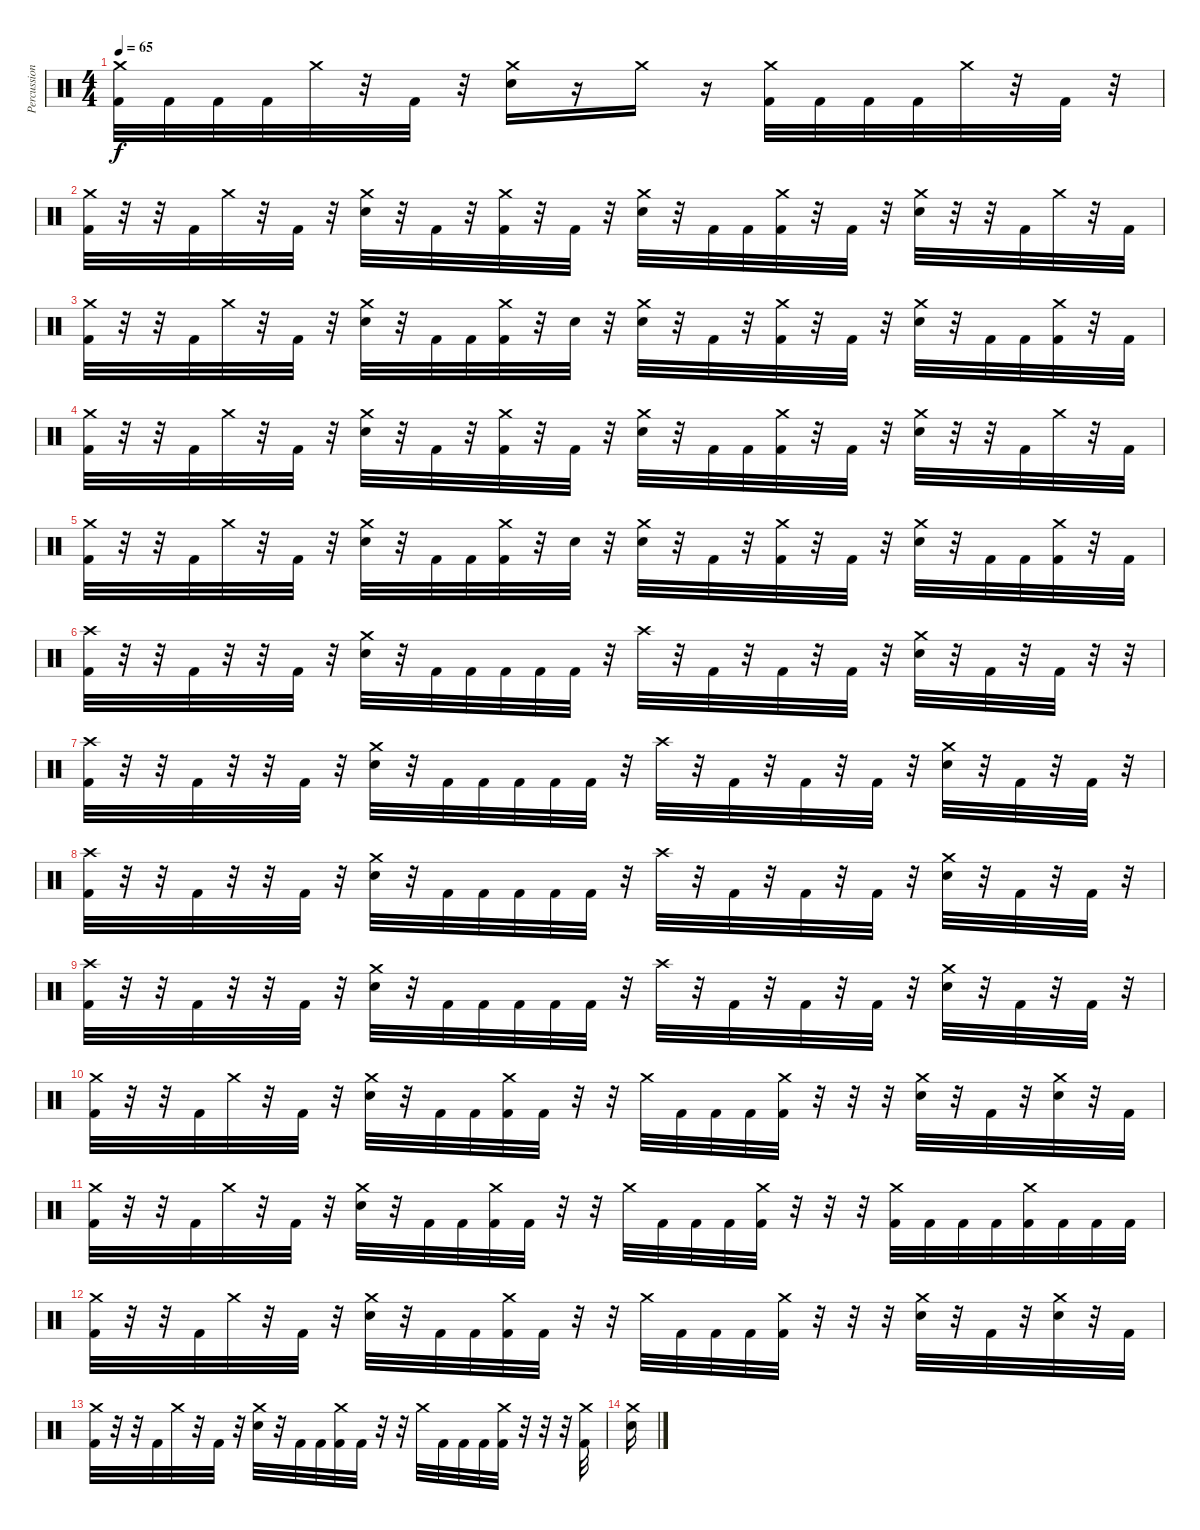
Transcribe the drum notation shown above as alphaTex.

\track ("Percussion" "Percussion") {instrument percussion}
\staff {score}
\articulation defaults
\ts (4 4)
\tempo 65
\clef neutral
\ks c
("Kick (hit) 2" "Crash medium (hit)").32{dy f} "Kick (hit) 2".32 "Kick (hit) 2".32 "Kick (hit) 2".32 "Crash medium (hit)".32 r.32 "Kick (hit) 2".32 r.32 ("Snare (hit) 2" "Crash medium (hit)").16 r.16 "Crash medium (hit)".16 r.16 ("Kick (hit) 2" "Crash medium (hit)").32 "Kick (hit) 2".32 "Kick (hit) 2".32 "Kick (hit) 2".32 "Crash medium (hit)".32 r.32 "Kick (hit) 2".32 r.32 |
("Crash medium (hit)" "Kick (hit) 2").32 r.32 r.32 "Kick (hit) 2".32 "Crash medium (hit)".32 r.32 "Kick (hit) 2".32 r.32 ("Crash medium (hit)" "Snare (hit) 2").32 r.32 "Kick (hit) 2".32 r.32 ("Crash medium (hit)" "Kick (hit) 2").32 r.32 "Kick (hit) 2".32 r.32 ("Crash medium (hit)" "Snare (hit) 2").32 r.32 "Kick (hit) 2".32 "Kick (hit) 2".32 ("Crash medium (hit)" "Kick (hit) 2").32 r.32 "Kick (hit) 2".32 r.32 ("Crash medium (hit)" "Snare (hit) 2").32 r.32 r.32 "Kick (hit) 2".32 "Crash medium (hit)".32 r.32 "Kick (hit) 2".32 |
("Crash medium (hit)" "Kick (hit) 2").32 r.32 r.32 "Kick (hit) 2".32 "Crash medium (hit)".32 r.32 "Kick (hit) 2".32 r.32 ("Crash medium (hit)" "Snare (hit) 2").32 r.32 "Kick (hit) 2".32 "Kick (hit) 2".32 ("Crash medium (hit)" "Kick (hit) 2").32 r.32 "Snare (hit) 2".32 r.32 ("Crash medium (hit)" "Snare (hit) 2").32 r.32 "Kick (hit) 2".32 r.32 ("Crash medium (hit)" "Kick (hit) 2").32 r.32 "Kick (hit) 2".32 r.32 ("Crash medium (hit)" "Snare (hit) 2").32 r.32 "Kick (hit) 2".32 "Kick (hit) 2".32 ("Crash medium (hit)" "Kick (hit) 2").32 r.32 "Kick (hit) 2".32 |
("Crash medium (hit)" "Kick (hit) 2").32 r.32 r.32 "Kick (hit) 2".32 "Crash medium (hit)".32 r.32 "Kick (hit) 2".32 r.32 ("Crash medium (hit)" "Snare (hit) 2").32 r.32 "Kick (hit) 2".32 r.32 ("Crash medium (hit)" "Kick (hit) 2").32 r.32 "Kick (hit) 2".32 r.32 ("Crash medium (hit)" "Snare (hit) 2").32 r.32 "Kick (hit) 2".32 "Kick (hit) 2".32 ("Crash medium (hit)" "Kick (hit) 2").32 r.32 "Kick (hit) 2".32 r.32 ("Crash medium (hit)" "Snare (hit) 2").32 r.32 r.32 "Kick (hit) 2".32 "Crash medium (hit)".32 r.32 "Kick (hit) 2".32 |
("Crash medium (hit)" "Kick (hit) 2").32 r.32 r.32 "Kick (hit) 2".32 "Crash medium (hit)".32 r.32 "Kick (hit) 2".32 r.32 ("Crash medium (hit)" "Snare (hit) 2").32 r.32 "Kick (hit) 2".32 "Kick (hit) 2".32 ("Crash medium (hit)" "Kick (hit) 2").32 r.32 "Snare (hit) 2".32 r.32 ("Crash medium (hit)" "Snare (hit) 2").32 r.32 "Kick (hit) 2".32 r.32 ("Crash medium (hit)" "Kick (hit) 2").32 r.32 "Kick (hit) 2".32 r.32 ("Crash medium (hit)" "Snare (hit) 2").32 r.32 "Kick (hit) 2".32 "Kick (hit) 2".32 ("Crash medium (hit)" "Kick (hit) 2").32 r.32 "Kick (hit) 2".32 |
("Crash high (hit)" "Kick (hit) 2").32 r.32 r.32 "Kick (hit) 2".32 r.32 r.32 "Kick (hit) 2".32 r.32 ("Crash medium (hit)" "Snare (hit) 2").32 r.32 "Kick (hit) 2".32 "Kick (hit) 2".32 "Kick (hit) 2".32 "Kick (hit) 2".32 "Kick (hit) 2".32 r.32 "Crash high (hit)".32 r.32 "Kick (hit) 2".32 r.32 "Kick (hit) 2".32 r.32 "Kick (hit) 2".32 r.32 ("Crash medium (hit)" "Snare (hit) 2").32 r.32 "Kick (hit) 2".32 r.32 "Kick (hit) 2".32 r.32 r.32 |
("Crash high (hit)" "Kick (hit) 2").32 r.32 r.32 "Kick (hit) 2".32 r.32 r.32 "Kick (hit) 2".32 r.32 ("Crash medium (hit)" "Snare (hit) 2").32 r.32 "Kick (hit) 2".32 "Kick (hit) 2".32 "Kick (hit) 2".32 "Kick (hit) 2".32 "Kick (hit) 2".32 r.32 "Crash high (hit)".32 r.32 "Kick (hit) 2".32 r.32 "Kick (hit) 2".32 r.32 "Kick (hit) 2".32 r.32 ("Crash medium (hit)" "Snare (hit) 2").32 r.32 "Kick (hit) 2".32 r.32 "Kick (hit) 2".32 r.32 |
("Crash high (hit)" "Kick (hit) 2").32 r.32 r.32 "Kick (hit) 2".32 r.32 r.32 "Kick (hit) 2".32 r.32 ("Crash medium (hit)" "Snare (hit) 2").32 r.32 "Kick (hit) 2".32 "Kick (hit) 2".32 "Kick (hit) 2".32 "Kick (hit) 2".32 "Kick (hit) 2".32 r.32 "Crash high (hit)".32 r.32 "Kick (hit) 2".32 r.32 "Kick (hit) 2".32 r.32 "Kick (hit) 2".32 r.32 ("Crash medium (hit)" "Snare (hit) 2").32 r.32 "Kick (hit) 2".32 r.32 "Kick (hit) 2".32 r.32 |
("Crash high (hit)" "Kick (hit) 2").32 r.32 r.32 "Kick (hit) 2".32 r.32 r.32 "Kick (hit) 2".32 r.32 ("Crash medium (hit)" "Snare (hit) 2").32 r.32 "Kick (hit) 2".32 "Kick (hit) 2".32 "Kick (hit) 2".32 "Kick (hit) 2".32 "Kick (hit) 2".32 r.32 "Crash high (hit)".32 r.32 "Kick (hit) 2".32 r.32 "Kick (hit) 2".32 r.32 "Kick (hit) 2".32 r.32 ("Crash medium (hit)" "Snare (hit) 2").32 r.32 "Kick (hit) 2".32 r.32 "Kick (hit) 2".32 r.32 |
("Crash medium (hit)" "Kick (hit) 2").32 r.32 r.32 "Kick (hit) 2".32 "Crash medium (hit)".32 r.32 "Kick (hit) 2".32 r.32 ("Crash medium (hit)" "Snare (hit) 2").32 r.32 "Kick (hit) 2".32 "Kick (hit) 2".32 ("Crash medium (hit)" "Kick (hit) 2").32 "Kick (hit) 2".32 r.32 r.32 "Crash medium (hit)".32 "Kick (hit) 2".32 "Kick (hit) 2".32 "Kick (hit) 2".32 ("Crash medium (hit)" "Kick (hit) 2").32 r.32 r.32 r.32 ("Crash medium (hit)" "Snare (hit) 2").32 r.32 "Kick (hit) 2".32 r.32 ("Crash medium (hit)" "Snare (hit) 2").32 r.32 "Kick (hit) 2".32 |
("Crash medium (hit)" "Kick (hit) 2").32 r.32 r.32 "Kick (hit) 2".32 "Crash medium (hit)".32 r.32 "Kick (hit) 2".32 r.32 ("Crash medium (hit)" "Snare (hit) 2").32 r.32 "Kick (hit) 2".32 "Kick (hit) 2".32 ("Crash medium (hit)" "Kick (hit) 2").32 "Kick (hit) 2".32 r.32 r.32 "Crash medium (hit)".32 "Kick (hit) 2".32 "Kick (hit) 2".32 "Kick (hit) 2".32 ("Crash medium (hit)" "Kick (hit) 2").32 r.32 r.32 r.32 ("Crash medium (hit)" "Kick (hit) 2").32 "Kick (hit) 2".32 "Kick (hit) 2".32 "Kick (hit) 2".32 ("Crash medium (hit)" "Kick (hit) 2").32 "Kick (hit) 2".32 "Kick (hit) 2".32 "Kick (hit) 2".32 |
("Crash medium (hit)" "Kick (hit) 2").32 r.32 r.32 "Kick (hit) 2".32 "Crash medium (hit)".32 r.32 "Kick (hit) 2".32 r.32 ("Crash medium (hit)" "Snare (hit) 2").32 r.32 "Kick (hit) 2".32 "Kick (hit) 2".32 ("Crash medium (hit)" "Kick (hit) 2").32 "Kick (hit) 2".32 r.32 r.32 "Crash medium (hit)".32 "Kick (hit) 2".32 "Kick (hit) 2".32 "Kick (hit) 2".32 ("Crash medium (hit)" "Kick (hit) 2").32 r.32 r.32 r.32 ("Crash medium (hit)" "Snare (hit) 2").32 r.32 "Kick (hit) 2".32 r.32 ("Crash medium (hit)" "Snare (hit) 2").32 r.32 "Kick (hit) 2".32 |
("Crash medium (hit)" "Kick (hit) 2").32 r.32 r.32 "Kick (hit) 2".32 "Crash medium (hit)".32 r.32 "Kick (hit) 2".32 r.32 ("Crash medium (hit)" "Snare (hit) 2").32 r.32 "Kick (hit) 2".32 "Kick (hit) 2".32 ("Crash medium (hit)" "Kick (hit) 2").32 "Kick (hit) 2".32 r.32 r.32 "Crash medium (hit)".32 "Kick (hit) 2".32 "Kick (hit) 2".32 "Kick (hit) 2".32 ("Crash medium (hit)" "Kick (hit) 2").32 r.32 r.32 r.32 ("Crash medium (hit)" "Kick (hit) 2").32 |
("Snare (hit) 2" "Crash medium (hit)").16
